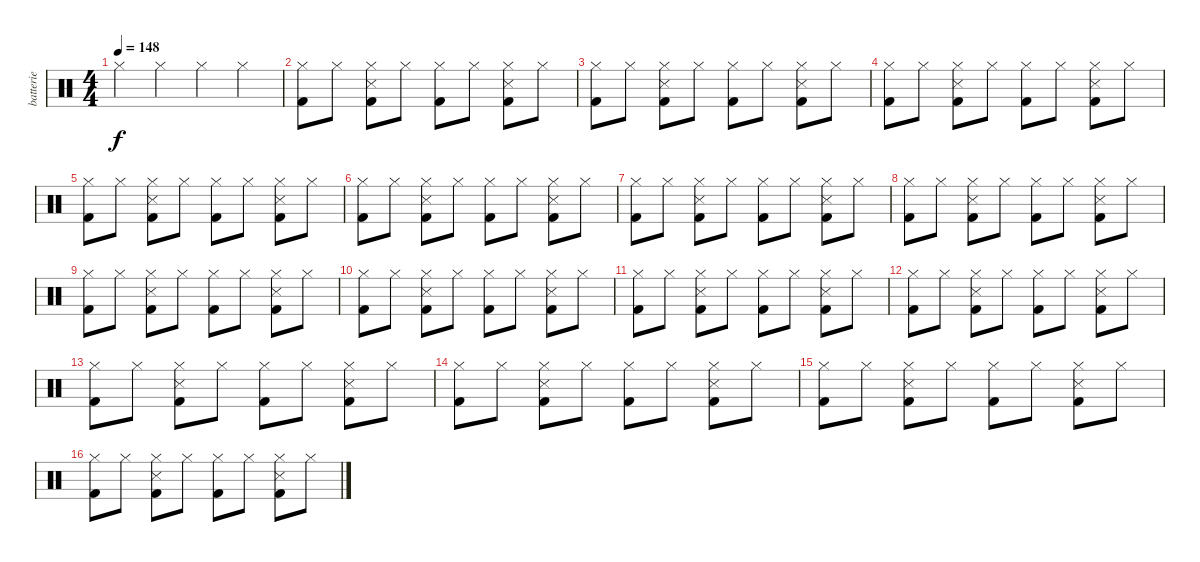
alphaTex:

\track ("batterie" "batterie") {instrument percussion}
\staff {score}
\articulation defaults
\ts (4 4)
\tempo 148
\clef neutral
\ks c "Hi-Hat (closed)".4{dy f} "Hi-Hat (closed)".4 "Hi-Hat (closed)".4 "Hi-Hat (closed)".4
|
("Hi-Hat (closed)" "Kick (hit) 2").8 "Hi-Hat (closed)".8 ("Hi-Hat (closed)" "Snare (side stick) 3" "Kick (hit) 2").8 "Hi-Hat (closed)".8 ("Hi-Hat (closed)" "Kick (hit) 2").8 "Hi-Hat (closed)".8 ("Hi-Hat (closed)" "Snare (side stick) 3" "Kick (hit) 2").8 "Hi-Hat (closed)".8 |
("Hi-Hat (closed)" "Kick (hit) 2").8 "Hi-Hat (closed)".8 ("Hi-Hat (closed)" "Snare (side stick) 3" "Kick (hit) 2").8 "Hi-Hat (closed)".8 ("Hi-Hat (closed)" "Kick (hit) 2").8 "Hi-Hat (closed)".8 ("Hi-Hat (closed)" "Snare (side stick) 3" "Kick (hit) 2").8 "Hi-Hat (closed)".8 |
("Hi-Hat (closed)" "Kick (hit) 2").8 "Hi-Hat (closed)".8 ("Hi-Hat (closed)" "Snare (side stick) 3" "Kick (hit) 2").8 "Hi-Hat (closed)".8 ("Hi-Hat (closed)" "Kick (hit) 2").8 "Hi-Hat (closed)".8 ("Hi-Hat (closed)" "Snare (side stick) 3" "Kick (hit) 2").8 "Hi-Hat (closed)".8 |
("Hi-Hat (closed)" "Kick (hit) 2").8 "Hi-Hat (closed)".8 ("Hi-Hat (closed)" "Snare (side stick) 3" "Kick (hit) 2").8 "Hi-Hat (closed)".8 ("Hi-Hat (closed)" "Kick (hit) 2").8 "Hi-Hat (closed)".8 ("Hi-Hat (closed)" "Snare (side stick) 3" "Kick (hit) 2").8 "Hi-Hat (closed)".8 |
("Hi-Hat (closed)" "Kick (hit) 2").8 "Hi-Hat (closed)".8 ("Hi-Hat (closed)" "Snare (side stick) 3" "Kick (hit) 2").8 "Hi-Hat (closed)".8 ("Hi-Hat (closed)" "Kick (hit) 2").8 "Hi-Hat (closed)".8 ("Hi-Hat (closed)" "Snare (side stick) 3" "Kick (hit) 2").8 "Hi-Hat (closed)".8 |
("Hi-Hat (closed)" "Kick (hit) 2").8 "Hi-Hat (closed)".8 ("Hi-Hat (closed)" "Snare (side stick) 3" "Kick (hit) 2").8 "Hi-Hat (closed)".8 ("Hi-Hat (closed)" "Kick (hit) 2").8 "Hi-Hat (closed)".8 ("Hi-Hat (closed)" "Snare (side stick) 3" "Kick (hit) 2").8 "Hi-Hat (closed)".8 |
("Hi-Hat (closed)" "Kick (hit) 2").8 "Hi-Hat (closed)".8 ("Hi-Hat (closed)" "Snare (side stick) 3" "Kick (hit) 2").8 "Hi-Hat (closed)".8 ("Hi-Hat (closed)" "Kick (hit) 2").8 "Hi-Hat (closed)".8 ("Hi-Hat (closed)" "Snare (side stick) 3" "Kick (hit) 2").8 "Hi-Hat (closed)".8 |
("Hi-Hat (closed)" "Kick (hit) 2").8 "Hi-Hat (closed)".8 ("Hi-Hat (closed)" "Snare (side stick) 3" "Kick (hit) 2").8 "Hi-Hat (closed)".8 ("Hi-Hat (closed)" "Kick (hit) 2").8 "Hi-Hat (closed)".8 ("Hi-Hat (closed)" "Snare (side stick) 3" "Kick (hit) 2").8 "Hi-Hat (closed)".8 |
("Hi-Hat (closed)" "Kick (hit) 2").8 "Hi-Hat (closed)".8 ("Hi-Hat (closed)" "Snare (side stick) 3" "Kick (hit) 2").8 "Hi-Hat (closed)".8 ("Hi-Hat (closed)" "Kick (hit) 2").8 "Hi-Hat (closed)".8 ("Hi-Hat (closed)" "Snare (side stick) 3" "Kick (hit) 2").8 "Hi-Hat (closed)".8 |
("Hi-Hat (closed)" "Kick (hit) 2").8 "Hi-Hat (closed)".8 ("Hi-Hat (closed)" "Snare (side stick) 3" "Kick (hit) 2").8 "Hi-Hat (closed)".8 ("Hi-Hat (closed)" "Kick (hit) 2").8 "Hi-Hat (closed)".8 ("Hi-Hat (closed)" "Snare (side stick) 3" "Kick (hit) 2").8 "Hi-Hat (closed)".8 |
("Hi-Hat (closed)" "Kick (hit) 2").8 "Hi-Hat (closed)".8 ("Hi-Hat (closed)" "Snare (side stick) 3" "Kick (hit) 2").8 "Hi-Hat (closed)".8 ("Hi-Hat (closed)" "Kick (hit) 2").8 "Hi-Hat (closed)".8 ("Hi-Hat (closed)" "Snare (side stick) 3" "Kick (hit) 2").8 "Hi-Hat (closed)".8 |
("Hi-Hat (closed)" "Kick (hit) 2").8 "Hi-Hat (closed)".8 ("Hi-Hat (closed)" "Snare (side stick) 3" "Kick (hit) 2").8 "Hi-Hat (closed)".8 ("Hi-Hat (closed)" "Kick (hit) 2").8 "Hi-Hat (closed)".8 ("Hi-Hat (closed)" "Snare (side stick) 3" "Kick (hit) 2").8 "Hi-Hat (closed)".8 |
("Hi-Hat (closed)" "Kick (hit) 2").8 "Hi-Hat (closed)".8 ("Hi-Hat (closed)" "Snare (side stick) 3" "Kick (hit) 2").8 "Hi-Hat (closed)".8 ("Hi-Hat (closed)" "Kick (hit) 2").8 "Hi-Hat (closed)".8 ("Hi-Hat (closed)" "Snare (side stick) 3" "Kick (hit) 2").8 "Hi-Hat (closed)".8 |
("Hi-Hat (closed)" "Kick (hit) 2").8 "Hi-Hat (closed)".8 ("Hi-Hat (closed)" "Snare (side stick) 3" "Kick (hit) 2").8 "Hi-Hat (closed)".8 ("Hi-Hat (closed)" "Kick (hit) 2").8 "Hi-Hat (closed)".8 ("Hi-Hat (closed)" "Snare (side stick) 3" "Kick (hit) 2").8 "Hi-Hat (closed)".8 |
("Hi-Hat (closed)" "Kick (hit) 2").8 "Hi-Hat (closed)".8 ("Hi-Hat (closed)" "Snare (side stick) 3" "Kick (hit) 2").8 "Hi-Hat (closed)".8 ("Hi-Hat (closed)" "Kick (hit) 2").8 "Hi-Hat (closed)".8 ("Hi-Hat (closed)" "Snare (side stick) 3" "Kick (hit) 2").8 "Hi-Hat (closed)".8
